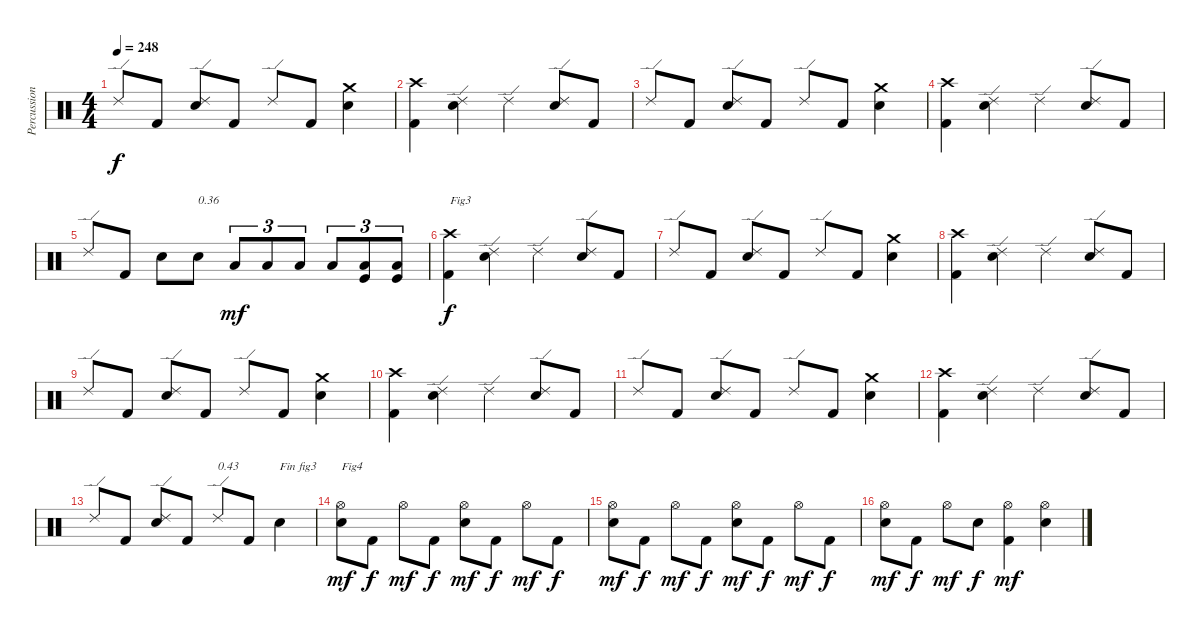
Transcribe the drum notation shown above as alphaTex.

\track ("Percussions" "Percussion") {instrument percussion}
\staff {score}
\articulation defaults
\ts (4 4)
\tempo 248
\clef neutral
\ks c "Ride (edge) 2".8{dy f} "Kick (hit) 2".8
("Electric Snare (hit)" "Ride (edge) 2").8 "Kick (hit) 2".8 "Ride (edge) 2".8 "Kick (hit) 2".8 ("Electric Snare (hit)" "Crash medium (hit)").4 |
("Kick (hit) 2" "Crash high (hit)").4 ("Electric Snare (hit)" "Ride (edge) 2").4 "Ride (edge) 2".4 ("Electric Snare (hit)" "Ride (edge) 2").8 "Kick (hit) 2".8 |
"Ride (edge) 2".8 "Kick (hit) 2".8 ("Electric Snare (hit)" "Ride (edge) 2").8 "Kick (hit) 2".8 "Ride (edge) 2".8 "Kick (hit) 2".8 ("Electric Snare (hit)" "Crash medium (hit)").4 |
("Kick (hit) 2" "Crash high (hit)").4 ("Electric Snare (hit)" "Ride (edge) 2").4 "Ride (edge) 2".4 ("Electric Snare (hit)" "Ride (edge) 2").8 "Kick (hit) 2".8 |
"Ride (edge) 2".8 "Kick (hit) 2".8 "Electric Snare (hit)".8 "Electric Snare (hit)".8{txt "0.36"} "Low Floor Tom (hit)".8{tu (3 2) dy mf} "Low Floor Tom (hit)".8{tu (3 2)} "Low Floor Tom (hit)".8{tu (3 2)} "Low Floor Tom (hit)".8{tu (3 2)} ("Kick (hit)" "Low Floor Tom (hit)").8{tu (3 2)} ("Kick (hit)" "Low Floor Tom (hit)").8{tu (3 2)} |
("Kick (hit) 2" "Crash high (hit)").4{txt "Fig3" dy f} ("Electric Snare (hit)" "Ride (edge) 2").4 "Ride (edge) 2".4 ("Electric Snare (hit)" "Ride (edge) 2").8 "Kick (hit) 2".8 |
"Ride (edge) 2".8 "Kick (hit) 2".8 ("Electric Snare (hit)" "Ride (edge) 2").8 "Kick (hit) 2".8 "Ride (edge) 2".8 "Kick (hit) 2".8 ("Electric Snare (hit)" "Crash medium (hit)").4 |
("Kick (hit) 2" "Crash high (hit)").4 ("Electric Snare (hit)" "Ride (edge) 2").4 "Ride (edge) 2".4 ("Electric Snare (hit)" "Ride (edge) 2").8 "Kick (hit) 2".8 |
"Ride (edge) 2".8 "Kick (hit) 2".8 ("Electric Snare (hit)" "Ride (edge) 2").8 "Kick (hit) 2".8 "Ride (edge) 2".8 "Kick (hit) 2".8 ("Electric Snare (hit)" "Crash medium (hit)").4 |
("Kick (hit) 2" "Crash high (hit)").4 ("Electric Snare (hit)" "Ride (edge) 2").4 "Ride (edge) 2".4 ("Electric Snare (hit)" "Ride (edge) 2").8 "Kick (hit) 2".8 |
"Ride (edge) 2".8 "Kick (hit) 2".8 ("Electric Snare (hit)" "Ride (edge) 2").8 "Kick (hit) 2".8 "Ride (edge) 2".8 "Kick (hit) 2".8 ("Electric Snare (hit)" "Crash medium (hit)").4 |
("Kick (hit) 2" "Crash high (hit)").4 ("Electric Snare (hit)" "Ride (edge) 2").4 "Ride (edge) 2".4 ("Electric Snare (hit)" "Ride (edge) 2").8 "Kick (hit) 2".8 |
"Ride (edge) 2".8 "Kick (hit) 2".8 ("Electric Snare (hit)" "Ride (edge) 2").8 "Kick (hit) 2".8 "Ride (edge) 2".8{txt "0.43"} "Kick (hit) 2".8 "Electric Snare (hit)".4{txt "Fin fig3"} |
("Electric Snare (hit)" "Hi-Hat (open)").8{txt "Fig4" dy mf} "Kick (hit) 2".8{dy f} "Hi-Hat (open)".8{dy mf} "Kick (hit) 2".8{dy f} ("Electric Snare (hit)" "Hi-Hat (open)").8{dy mf} "Kick (hit) 2".8{dy f} "Hi-Hat (open)".8{dy mf} "Kick (hit) 2".8{dy f} |
("Electric Snare (hit)" "Hi-Hat (open)").8{dy mf} "Kick (hit) 2".8{dy f} "Hi-Hat (open)".8{dy mf} "Kick (hit) 2".8{dy f} ("Electric Snare (hit)" "Hi-Hat (open)").8{dy mf} "Kick (hit) 2".8{dy f} "Hi-Hat (open)".8{dy mf} "Kick (hit) 2".8{dy f} |
("Electric Snare (hit)" "Hi-Hat (open)").8{dy mf} "Kick (hit) 2".8{dy f} "Hi-Hat (open)".8{dy mf} "Electric Snare (hit)".8{dy f} ("Kick (hit) 2" "Hi-Hat (open)").4{dy mf} ("Electric Snare (hit)" "Hi-Hat (open)").4
